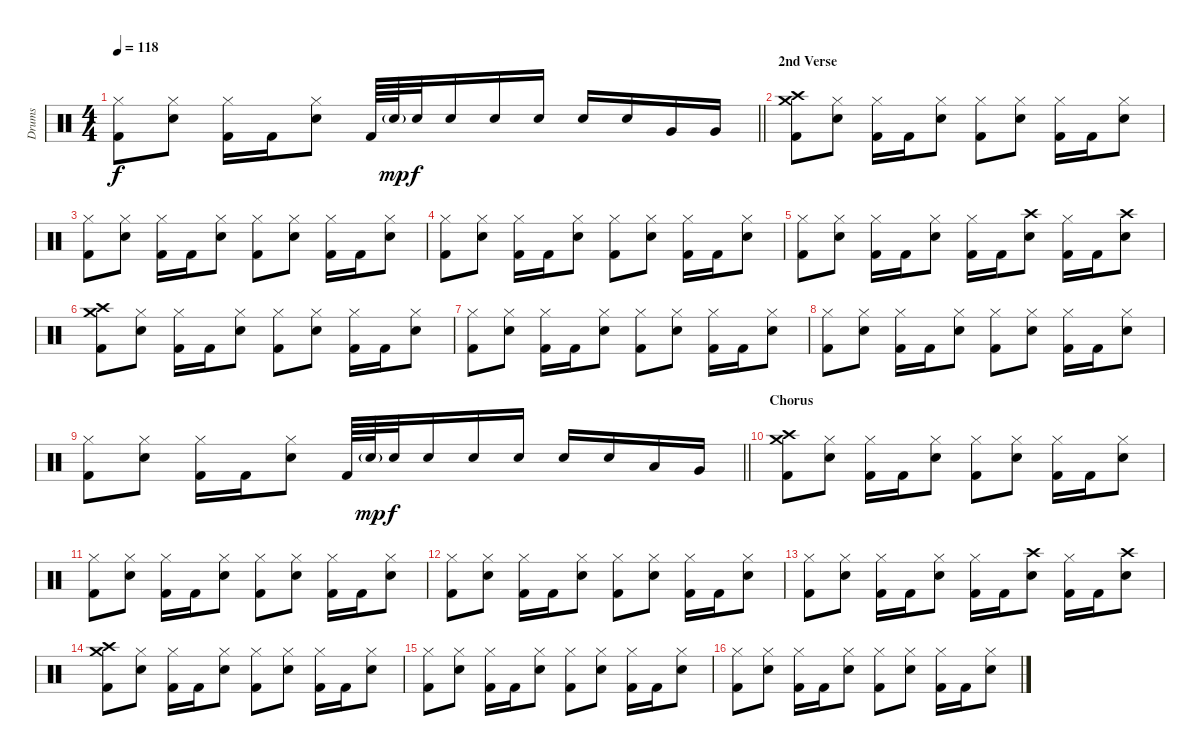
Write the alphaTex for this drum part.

\track ("Drums" "Drums") {instrument percussion}
\staff {score}
\articulation defaults
\ts (4 4)
\tempo 118
\clef neutral
\barLineRight lightlight
\ks c
("Hi-Hat (closed)" "Kick (hit) 2").8{dy f} ("Hi-Hat (closed)" "Electric Snare (hit)").8 ("Hi-Hat (closed)" "Kick (hit) 2").16 "Kick (hit) 2".16 ("Hi-Hat (closed)" "Electric Snare (hit)").8 "Kick (hit) 2".64 "Electric Snare (hit)"{g}.64{dy mp} "Electric Snare (hit)".32{dy f} "Electric Snare (hit)".16 "Electric Snare (hit)".16 "Electric Snare (hit)".16 "Electric Snare (hit)".16 "Electric Snare (hit)".16 "Very Low Tom (hit)".16 "Very Low Tom (hit)".16 |
\section ("" "2nd Verse")
("Crash medium (hit)" "Crash high (hit)" "Kick (hit) 2").8 ("Hi-Hat (closed)" "Electric Snare (hit)").8 ("Hi-Hat (closed)" "Kick (hit) 2").16 "Kick (hit) 2".16 ("Hi-Hat (closed)" "Electric Snare (hit)").8 ("Hi-Hat (closed)" "Kick (hit) 2").8 ("Hi-Hat (closed)" "Electric Snare (hit)").8 ("Hi-Hat (closed)" "Kick (hit) 2").16 "Kick (hit) 2".16 ("Hi-Hat (closed)" "Electric Snare (hit)").8 |
("Hi-Hat (closed)" "Kick (hit) 2").8 ("Hi-Hat (closed)" "Electric Snare (hit)").8 ("Hi-Hat (closed)" "Kick (hit) 2").16 "Kick (hit) 2".16 ("Hi-Hat (closed)" "Electric Snare (hit)").8 ("Hi-Hat (closed)" "Kick (hit) 2").8 ("Hi-Hat (closed)" "Electric Snare (hit)").8 ("Hi-Hat (closed)" "Kick (hit) 2").16 "Kick (hit) 2".16 ("Hi-Hat (closed)" "Electric Snare (hit)").8 |
("Hi-Hat (closed)" "Kick (hit) 2").8 ("Hi-Hat (closed)" "Electric Snare (hit)").8 ("Hi-Hat (closed)" "Kick (hit) 2").16 "Kick (hit) 2".16 ("Hi-Hat (closed)" "Electric Snare (hit)").8 ("Hi-Hat (closed)" "Kick (hit) 2").8 ("Hi-Hat (closed)" "Electric Snare (hit)").8 ("Hi-Hat (closed)" "Kick (hit) 2").16 "Kick (hit) 2".16 ("Hi-Hat (closed)" "Electric Snare (hit)").8 |
("Hi-Hat (closed)" "Kick (hit) 2").8 ("Hi-Hat (closed)" "Electric Snare (hit)").8 ("Hi-Hat (closed)" "Kick (hit) 2").16 "Kick (hit) 2".16 ("Hi-Hat (closed)" "Electric Snare (hit)").8 ("Hi-Hat (closed)" "Kick (hit) 2").16 "Kick (hit) 2".16 ("Crash high (hit)" "Electric Snare (hit)").8 ("Hi-Hat (closed)" "Kick (hit) 2").16 "Kick (hit) 2".16 ("Crash high (hit)" "Electric Snare (hit)").8 |
("Crash medium (hit)" "Crash high (hit)" "Kick (hit) 2").8 ("Hi-Hat (closed)" "Electric Snare (hit)").8 ("Hi-Hat (closed)" "Kick (hit) 2").16 "Kick (hit) 2".16 ("Hi-Hat (closed)" "Electric Snare (hit)").8 ("Hi-Hat (closed)" "Kick (hit) 2").8 ("Hi-Hat (closed)" "Electric Snare (hit)").8 ("Hi-Hat (closed)" "Kick (hit) 2").16 "Kick (hit) 2".16 ("Hi-Hat (closed)" "Electric Snare (hit)").8 |
("Hi-Hat (closed)" "Kick (hit) 2").8 ("Hi-Hat (closed)" "Electric Snare (hit)").8 ("Hi-Hat (closed)" "Kick (hit) 2").16 "Kick (hit) 2".16 ("Hi-Hat (closed)" "Electric Snare (hit)").8 ("Hi-Hat (closed)" "Kick (hit) 2").8 ("Hi-Hat (closed)" "Electric Snare (hit)").8 ("Hi-Hat (closed)" "Kick (hit) 2").16 "Kick (hit) 2".16 ("Hi-Hat (closed)" "Electric Snare (hit)").8 |
("Hi-Hat (closed)" "Kick (hit) 2").8 ("Hi-Hat (closed)" "Electric Snare (hit)").8 ("Hi-Hat (closed)" "Kick (hit) 2").16 "Kick (hit) 2".16 ("Hi-Hat (closed)" "Electric Snare (hit)").8 ("Hi-Hat (closed)" "Kick (hit) 2").8 ("Hi-Hat (closed)" "Electric Snare (hit)").8 ("Hi-Hat (closed)" "Kick (hit) 2").16 "Kick (hit) 2".16 ("Hi-Hat (closed)" "Electric Snare (hit)").8 |
\barLineRight lightlight
("Hi-Hat (closed)" "Kick (hit) 2").8 ("Hi-Hat (closed)" "Electric Snare (hit)").8 ("Hi-Hat (closed)" "Kick (hit) 2").16 "Kick (hit) 2".16 ("Hi-Hat (closed)" "Electric Snare (hit)").8 "Kick (hit) 2".64 "Electric Snare (hit)"{g}.64{dy mp} "Electric Snare (hit)".32{dy f} "Electric Snare (hit)".16 "Electric Snare (hit)".16 "Electric Snare (hit)".16 "Electric Snare (hit)".16 "Electric Snare (hit)".16 "Low Tom (hit)".16 "Very Low Tom (hit)".16 |
\section ("" "Chorus")
("Crash medium (hit)" "Crash high (hit)" "Kick (hit) 2").8 ("Hi-Hat (closed)" "Electric Snare (hit)").8 ("Hi-Hat (closed)" "Kick (hit) 2").16 "Kick (hit) 2".16 ("Hi-Hat (closed)" "Electric Snare (hit)").8 ("Hi-Hat (closed)" "Kick (hit) 2").8 ("Hi-Hat (closed)" "Electric Snare (hit)").8 ("Hi-Hat (closed)" "Kick (hit) 2").16 "Kick (hit) 2".16 ("Hi-Hat (closed)" "Electric Snare (hit)").8 |
("Hi-Hat (closed)" "Kick (hit) 2").8 ("Hi-Hat (closed)" "Electric Snare (hit)").8 ("Hi-Hat (closed)" "Kick (hit) 2").16 "Kick (hit) 2".16 ("Hi-Hat (closed)" "Electric Snare (hit)").8 ("Hi-Hat (closed)" "Kick (hit) 2").8 ("Hi-Hat (closed)" "Electric Snare (hit)").8 ("Hi-Hat (closed)" "Kick (hit) 2").16 "Kick (hit) 2".16 ("Hi-Hat (closed)" "Electric Snare (hit)").8 |
("Hi-Hat (closed)" "Kick (hit) 2").8 ("Hi-Hat (closed)" "Electric Snare (hit)").8 ("Hi-Hat (closed)" "Kick (hit) 2").16 "Kick (hit) 2".16 ("Hi-Hat (closed)" "Electric Snare (hit)").8 ("Hi-Hat (closed)" "Kick (hit) 2").8 ("Hi-Hat (closed)" "Electric Snare (hit)").8 ("Hi-Hat (closed)" "Kick (hit) 2").16 "Kick (hit) 2".16 ("Hi-Hat (closed)" "Electric Snare (hit)").8 |
("Hi-Hat (closed)" "Kick (hit) 2").8 ("Hi-Hat (closed)" "Electric Snare (hit)").8 ("Hi-Hat (closed)" "Kick (hit) 2").16 "Kick (hit) 2".16 ("Hi-Hat (closed)" "Electric Snare (hit)").8 ("Hi-Hat (closed)" "Kick (hit) 2").16 "Kick (hit) 2".16 ("Crash high (hit)" "Electric Snare (hit)").8 ("Hi-Hat (closed)" "Kick (hit) 2").16 "Kick (hit) 2".16 ("Crash high (hit)" "Electric Snare (hit)").8 |
("Crash medium (hit)" "Crash high (hit)" "Kick (hit) 2").8 ("Hi-Hat (closed)" "Electric Snare (hit)").8 ("Hi-Hat (closed)" "Kick (hit) 2").16 "Kick (hit) 2".16 ("Hi-Hat (closed)" "Electric Snare (hit)").8 ("Hi-Hat (closed)" "Kick (hit) 2").8 ("Hi-Hat (closed)" "Electric Snare (hit)").8 ("Hi-Hat (closed)" "Kick (hit) 2").16 "Kick (hit) 2".16 ("Hi-Hat (closed)" "Electric Snare (hit)").8 |
("Hi-Hat (closed)" "Kick (hit) 2").8 ("Hi-Hat (closed)" "Electric Snare (hit)").8 ("Hi-Hat (closed)" "Kick (hit) 2").16 "Kick (hit) 2".16 ("Hi-Hat (closed)" "Electric Snare (hit)").8 ("Hi-Hat (closed)" "Kick (hit) 2").8 ("Hi-Hat (closed)" "Electric Snare (hit)").8 ("Hi-Hat (closed)" "Kick (hit) 2").16 "Kick (hit) 2".16 ("Hi-Hat (closed)" "Electric Snare (hit)").8 |
("Hi-Hat (closed)" "Kick (hit) 2").8 ("Hi-Hat (closed)" "Electric Snare (hit)").8 ("Hi-Hat (closed)" "Kick (hit) 2").16 "Kick (hit) 2".16 ("Hi-Hat (closed)" "Electric Snare (hit)").8 ("Hi-Hat (closed)" "Kick (hit) 2").8 ("Hi-Hat (closed)" "Electric Snare (hit)").8 ("Hi-Hat (closed)" "Kick (hit) 2").16 "Kick (hit) 2".16 ("Hi-Hat (closed)" "Electric Snare (hit)").8
